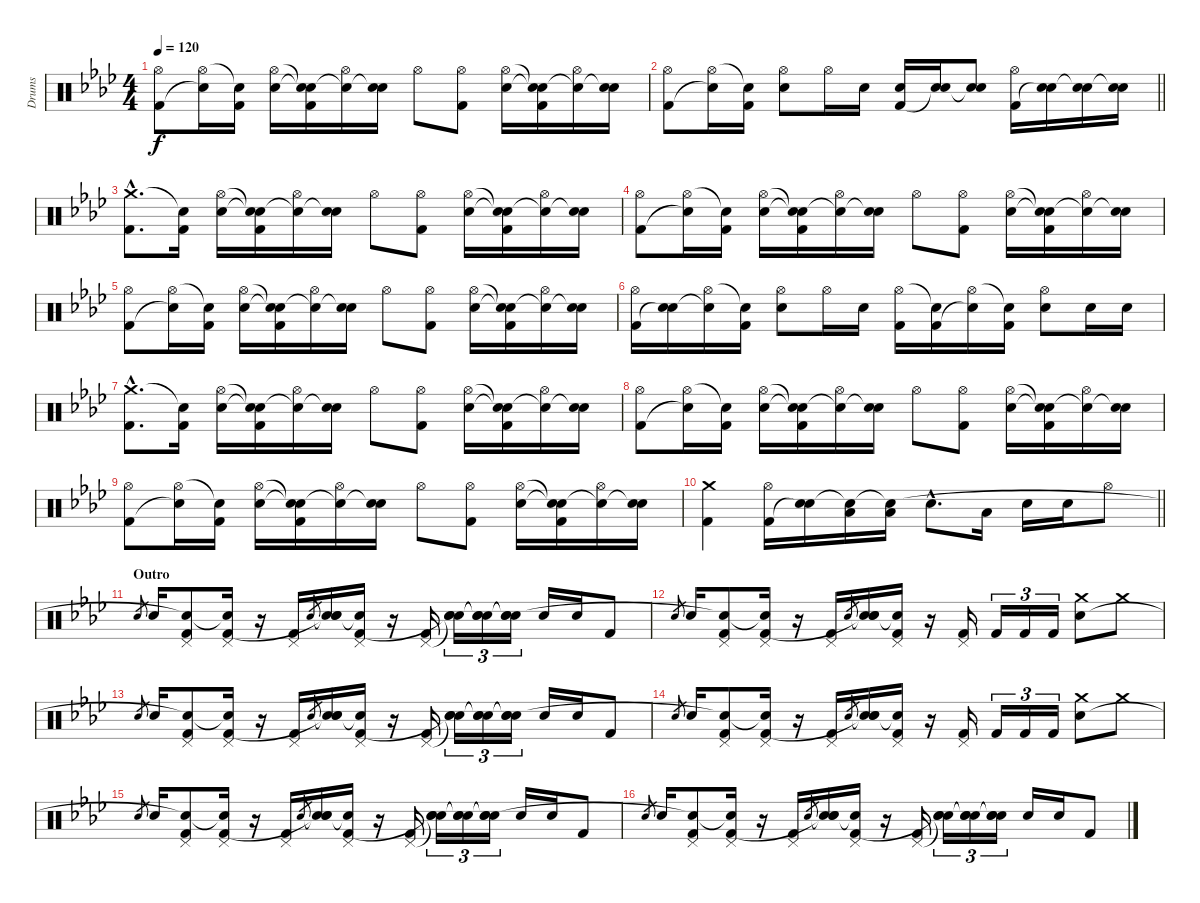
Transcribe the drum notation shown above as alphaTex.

\track ("Drums" "Drums") {instrument percussion}
\staff {score}
\articulation defaults
\ts (4 4)
\tempo 120
\clef neutral
\ks fminor
("Hi-Hat (open)" "Kick (hit) 2").8{dy f} ("Hi-Hat (open)" "Snare (hit)"{t}).16 ("Snare (hit)"{t} "Kick (hit) 2").16 ("Hi-Hat (open)" "Electric Snare (hit)").16 ("Snare (hit)"{t} "Snare (hit)"{t} "Kick (hit) 2").16 ("Hi-Hat (open)" "Snare (hit)"{t}).16 ("Electric Snare (hit)" "Snare (hit)"{t}).16 "Hi-Hat (open)".8 ("Hi-Hat (open)" "Kick (hit) 2").8 ("Hi-Hat (open)" "Electric Snare (hit)").16 ("Snare (hit)"{t} "Snare (hit)"{t} "Kick (hit) 2").16 ("Hi-Hat (open)" "Snare (hit)"{t}).16 ("Electric Snare (hit)" "Snare (hit)"{t}).16 |
\barLineRight lightlight
("Hi-Hat (open)" "Kick (hit) 2").8 ("Hi-Hat (open)" "Snare (hit)"{t}).16 ("Snare (hit)"{t} "Kick (hit) 2").16 ("Hi-Hat (open)" "Electric Snare (hit)").8 "Hi-Hat (open)".16 "Electric Snare (hit)".16 ("Electric Snare (hit)" "Kick (hit) 2").16 ("Electric Snare (hit)" "Snare (hit)"{t}).16 ("Electric Snare (hit)" "Snare (hit)"{t}).8 ("Hi-Hat (open)" "Kick (hit) 2").16 ("Electric Snare (hit)" "Snare (hit)"{t}).16 ("Electric Snare (hit)" "Snare (hit)"{t}).16 ("Electric Snare (hit)" "Snare (hit)"{t}).16 |
("Crash medium (hit)"{hac} "Kick (hit) 2"{hac}).8{d} ("Snare (hit)"{t} "Kick (hit) 2").16 ("Hi-Hat (open)" "Electric Snare (hit)").16 ("Snare (hit)"{t} "Snare (hit)"{t} "Kick (hit) 2").16 ("Hi-Hat (open)" "Snare (hit)"{t}).16 ("Electric Snare (hit)" "Snare (hit)"{t}).16 "Hi-Hat (open)".8 ("Hi-Hat (open)" "Kick (hit) 2").8 ("Hi-Hat (open)" "Electric Snare (hit)").16 ("Snare (hit)"{t} "Snare (hit)"{t} "Kick (hit) 2").16 ("Hi-Hat (open)" "Snare (hit)"{t}).16 ("Electric Snare (hit)" "Snare (hit)"{t}).16 |
("Hi-Hat (open)" "Kick (hit) 2").8 ("Hi-Hat (open)" "Snare (hit)"{t}).16 ("Snare (hit)"{t} "Kick (hit) 2").16 ("Hi-Hat (open)" "Electric Snare (hit)").16 ("Snare (hit)"{t} "Snare (hit)"{t} "Kick (hit) 2").16 ("Hi-Hat (open)" "Snare (hit)"{t}).16 ("Electric Snare (hit)" "Snare (hit)"{t}).16 "Hi-Hat (open)".8 ("Hi-Hat (open)" "Kick (hit) 2").8 ("Hi-Hat (open)" "Electric Snare (hit)").16 ("Snare (hit)"{t} "Snare (hit)"{t} "Kick (hit) 2").16 ("Hi-Hat (open)" "Snare (hit)"{t}).16 ("Electric Snare (hit)" "Snare (hit)"{t}).16 |
("Hi-Hat (open)" "Kick (hit) 2").8 ("Hi-Hat (open)" "Snare (hit)"{t}).16 ("Snare (hit)"{t} "Kick (hit) 2").16 ("Hi-Hat (open)" "Electric Snare (hit)").16 ("Snare (hit)"{t} "Snare (hit)"{t} "Kick (hit) 2").16 ("Hi-Hat (open)" "Snare (hit)"{t}).16 ("Electric Snare (hit)" "Snare (hit)"{t}).16 "Hi-Hat (open)".8 ("Hi-Hat (open)" "Kick (hit) 2").8 ("Hi-Hat (open)" "Electric Snare (hit)").16 ("Snare (hit)"{t} "Snare (hit)"{t} "Kick (hit) 2").16 ("Hi-Hat (open)" "Snare (hit)"{t}).16 ("Electric Snare (hit)" "Snare (hit)"{t}).16 |
("Hi-Hat (open)" "Kick (hit) 2").16 ("Electric Snare (hit)" "Snare (hit)"{t}).16 ("Hi-Hat (open)" "Snare (hit)"{t}).16 ("Snare (hit)"{t} "Kick (hit) 2").16 ("Hi-Hat (open)" "Electric Snare (hit)").8 "Hi-Hat (open)".16 "Electric Snare (hit)".16 ("Hi-Hat (open)" "Kick (hit) 2").16 ("Snare (hit)"{t} "Kick (hit) 2").16 ("Hi-Hat (open)" "Snare (hit)"{t}).16 ("Snare (hit)"{t} "Kick (hit) 2").16 ("Hi-Hat (open)" "Electric Snare (hit)").8 "Electric Snare (hit)".16 "Electric Snare (hit)".16 |
("Crash medium (hit)"{hac} "Kick (hit) 2"{hac}).8{d} ("Snare (hit)"{t} "Kick (hit) 2").16 ("Hi-Hat (open)" "Electric Snare (hit)").16 ("Snare (hit)"{t} "Snare (hit)"{t} "Kick (hit) 2").16 ("Hi-Hat (open)" "Snare (hit)"{t}).16 ("Electric Snare (hit)" "Snare (hit)"{t}).16 "Hi-Hat (open)".8 ("Hi-Hat (open)" "Kick (hit) 2").8 ("Hi-Hat (open)" "Electric Snare (hit)").16 ("Snare (hit)"{t} "Snare (hit)"{t} "Kick (hit) 2").16 ("Hi-Hat (open)" "Snare (hit)"{t}).16 ("Electric Snare (hit)" "Snare (hit)"{t}).16 |
("Hi-Hat (open)" "Kick (hit) 2").8 ("Hi-Hat (open)" "Snare (hit)"{t}).16 ("Snare (hit)"{t} "Kick (hit) 2").16 ("Hi-Hat (open)" "Electric Snare (hit)").16 ("Snare (hit)"{t} "Snare (hit)"{t} "Kick (hit) 2").16 ("Hi-Hat (open)" "Snare (hit)"{t}).16 ("Electric Snare (hit)" "Snare (hit)"{t}).16 "Hi-Hat (open)".8 ("Hi-Hat (open)" "Kick (hit) 2").8 ("Hi-Hat (open)" "Electric Snare (hit)").16 ("Snare (hit)"{t} "Snare (hit)"{t} "Kick (hit) 2").16 ("Hi-Hat (open)" "Snare (hit)"{t}).16 ("Electric Snare (hit)" "Snare (hit)"{t}).16 |
("Hi-Hat (open)" "Kick (hit) 2").8 ("Hi-Hat (open)" "Snare (hit)"{t}).16 ("Snare (hit)"{t} "Kick (hit) 2").16 ("Hi-Hat (open)" "Electric Snare (hit)").16 ("Snare (hit)"{t} "Snare (hit)"{t} "Kick (hit) 2").16 ("Hi-Hat (open)" "Snare (hit)"{t}).16 ("Electric Snare (hit)" "Snare (hit)"{t}).16 "Hi-Hat (open)".8 ("Hi-Hat (open)" "Kick (hit) 2").8 ("Hi-Hat (open)" "Electric Snare (hit)").16 ("Snare (hit)"{t} "Snare (hit)"{t} "Kick (hit) 2").16 ("Hi-Hat (open)" "Snare (hit)"{t}).16 ("Electric Snare (hit)" "Snare (hit)"{t}).16 |
\barLineRight lightlight
("Crash medium (hit)" "Kick (hit) 2").4 ("Hi-Hat (open)" "Kick (hit) 2").16 ("Electric Snare (hit)" "Snare (hit)"{t}).16 ("Low Tom (hit)" "Snare (hit)"{t}).16 ("Low Floor Tom (hit)" "Snare (hit)"{t}).16 "Electric Snare (hit)"{hac}.8{d} "Low Tom (hit)".16 "Electric Snare (hit)".16 "Electric Snare (hit)".16 "Hi-Hat (open)".8 |
\section ("" "Outro")
"Electric Snare (hit)".8{gr} "Electric Snare (hit)".16 ("Pedal Hi-Hat (hit)" "Snare (hit)"{t} "Kick (hit) 2").8 ("Pedal Hi-Hat (hit)" "Snare (hit)"{t} "Kick (hit) 2").16 r.16 ("Pedal Hi-Hat (hit)" "Kick (hit) 2").16 "Electric Snare (hit)".8{gr} ("Snare (hit)"{t} "Electric Snare (hit)" "Snare (hit)"{t}).16 ("Pedal Hi-Hat (hit)" "Snare (hit)"{t} "Kick (hit) 2").16 r.16 ("Pedal Hi-Hat (hit)" "Kick (hit) 2").16 ("Snare (hit)"{t} "Electric Snare (hit)" "Snare (hit)"{t}).16{tu (3 2)} ("Snare (hit)"{t} "Electric Snare (hit)" "Snare (hit)"{t}).16{tu (3 2)} ("Snare (hit)"{t} "Electric Snare (hit)" "Snare (hit)"{t}).16{tu (3 2)} "Electric Snare (hit)".16 "Electric Snare (hit)".16 "Kick (hit) 2".8 |
"Electric Snare (hit)".8{gr} "Electric Snare (hit)".16 ("Pedal Hi-Hat (hit)" "Snare (hit)"{t} "Kick (hit) 2").8 ("Pedal Hi-Hat (hit)" "Snare (hit)"{t} "Kick (hit) 2").16 r.16 ("Pedal Hi-Hat (hit)" "Kick (hit) 2").16 "Electric Snare (hit)".8{gr} ("Snare (hit)"{t} "Electric Snare (hit)" "Snare (hit)"{t}).16 ("Pedal Hi-Hat (hit)" "Snare (hit)"{t} "Kick (hit) 2").16 r.16 ("Pedal Hi-Hat (hit)" "Kick (hit) 2").16 "Kick (hit) 2".16{tu (3 2)} "Kick (hit) 2".16{tu (3 2)} "Kick (hit) 2".16{tu (3 2)} ("Crash medium (hit)" "Electric Snare (hit)").8 "Crash medium (hit)".8 |
"Electric Snare (hit)".8{gr} "Electric Snare (hit)".16 ("Pedal Hi-Hat (hit)" "Snare (hit)"{t} "Kick (hit) 2").8 ("Pedal Hi-Hat (hit)" "Snare (hit)"{t} "Kick (hit) 2").16 r.16 ("Pedal Hi-Hat (hit)" "Kick (hit) 2").16 "Electric Snare (hit)".8{gr} ("Snare (hit)"{t} "Electric Snare (hit)" "Snare (hit)"{t}).16 ("Pedal Hi-Hat (hit)" "Snare (hit)"{t} "Kick (hit) 2").16 r.16 ("Pedal Hi-Hat (hit)" "Kick (hit) 2").16 ("Snare (hit)"{t} "Electric Snare (hit)" "Snare (hit)"{t}).16{tu (3 2)} ("Snare (hit)"{t} "Electric Snare (hit)" "Snare (hit)"{t}).16{tu (3 2)} ("Snare (hit)"{t} "Electric Snare (hit)" "Snare (hit)"{t}).16{tu (3 2)} "Electric Snare (hit)".16 "Electric Snare (hit)".16 "Kick (hit) 2".8 |
"Electric Snare (hit)".8{gr} "Electric Snare (hit)".16 ("Pedal Hi-Hat (hit)" "Snare (hit)"{t} "Kick (hit) 2").8 ("Pedal Hi-Hat (hit)" "Snare (hit)"{t} "Kick (hit) 2").16 r.16 ("Pedal Hi-Hat (hit)" "Kick (hit) 2").16 "Electric Snare (hit)".8{gr} ("Snare (hit)"{t} "Electric Snare (hit)" "Snare (hit)"{t}).16 ("Pedal Hi-Hat (hit)" "Snare (hit)"{t} "Kick (hit) 2").16 r.16 ("Pedal Hi-Hat (hit)" "Kick (hit) 2").16 "Kick (hit) 2".16{tu (3 2)} "Kick (hit) 2".16{tu (3 2)} "Kick (hit) 2".16{tu (3 2)} ("Crash medium (hit)" "Electric Snare (hit)").8 "Crash medium (hit)".8 |
"Electric Snare (hit)".8{gr} "Electric Snare (hit)".16 ("Pedal Hi-Hat (hit)" "Snare (hit)"{t} "Kick (hit) 2").8 ("Pedal Hi-Hat (hit)" "Snare (hit)"{t} "Kick (hit) 2").16 r.16 ("Pedal Hi-Hat (hit)" "Kick (hit) 2").16 "Electric Snare (hit)".8{gr} ("Snare (hit)"{t} "Electric Snare (hit)" "Snare (hit)"{t}).16 ("Pedal Hi-Hat (hit)" "Snare (hit)"{t} "Kick (hit) 2").16 r.16 ("Pedal Hi-Hat (hit)" "Kick (hit) 2").16 ("Snare (hit)"{t} "Electric Snare (hit)" "Snare (hit)"{t}).16{tu (3 2)} ("Snare (hit)"{t} "Electric Snare (hit)" "Snare (hit)"{t}).16{tu (3 2)} ("Snare (hit)"{t} "Electric Snare (hit)" "Snare (hit)"{t}).16{tu (3 2)} "Electric Snare (hit)".16 "Electric Snare (hit)".16 "Kick (hit) 2".8 |
"Electric Snare (hit)".8{gr} "Electric Snare (hit)".16 ("Pedal Hi-Hat (hit)" "Snare (hit)"{t} "Kick (hit) 2").8 ("Pedal Hi-Hat (hit)" "Snare (hit)"{t} "Kick (hit) 2").16 r.16 ("Pedal Hi-Hat (hit)" "Kick (hit) 2").16 "Electric Snare (hit)".8{gr} ("Snare (hit)"{t} "Electric Snare (hit)" "Snare (hit)"{t}).16 ("Pedal Hi-Hat (hit)" "Snare (hit)"{t} "Kick (hit) 2").16 r.16 ("Pedal Hi-Hat (hit)" "Kick (hit) 2").16 ("Snare (hit)"{t} "Electric Snare (hit)" "Snare (hit)"{t}).16{tu (3 2)} ("Snare (hit)"{t} "Electric Snare (hit)" "Snare (hit)"{t}).16{tu (3 2)} ("Snare (hit)"{t} "Electric Snare (hit)" "Snare (hit)"{t}).16{tu (3 2)} "Electric Snare (hit)".16 "Electric Snare (hit)".16 "Kick (hit) 2".8
